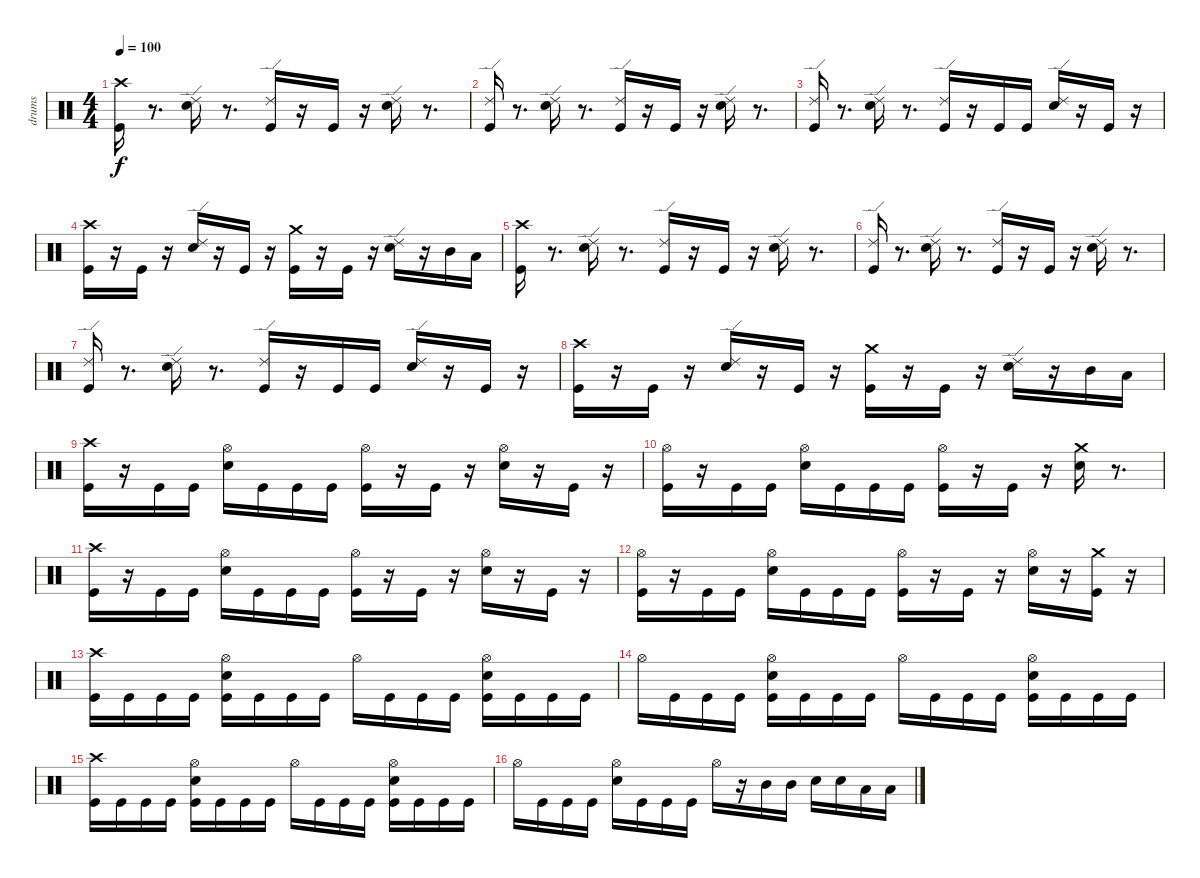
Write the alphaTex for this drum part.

\track ("drums" "drums") {instrument percussion}
\staff {score}
\articulation defaults
\ts (4 4)
\tempo 100
\clef neutral
\ks c
("Crash high (hit)" "Kick (hit)").16{dy f} r.8{d} ("Ride (edge) 2" "Snare (hit) 2").16 r.8{d} ("Ride (edge) 2" "Kick (hit)").16 r.16 "Kick (hit)".16 r.16 ("Ride (edge) 2" "Snare (hit) 2").16 r.8{d} |
("Ride (edge) 2" "Kick (hit)").16 r.8{d} ("Snare (hit) 2" "Ride (edge) 2").16 r.8{d} ("Kick (hit)" "Ride (edge) 2").16 r.16 "Kick (hit)".16 r.16 ("Snare (hit) 2" "Ride (edge) 2").16 r.8{d} |
("Ride (edge) 2" "Kick (hit)").16 r.8{d} ("Ride (edge) 2" "Snare (hit) 2").16 r.8{d} ("Ride (edge) 2" "Kick (hit)").16 r.16 "Kick (hit)".16 "Kick (hit)".16 ("Ride (edge) 2" "Snare (hit) 2").16 r.16 "Kick (hit)".16 r.16 |
("Crash high (hit)" "Kick (hit)").16 r.16 "Kick (hit)".16 r.16 ("Ride (edge) 2" "Snare (hit) 2").16 r.16 "Kick (hit)".16 r.16 ("Crash medium (hit)" "Kick (hit)").16 r.16 "Kick (hit)".16 r.16 ("Ride (edge) 2" "Snare (hit) 2").16 r.16 "Mid Tom (hit)".16 "Low Tom (hit)".16 |
("Crash high (hit)" "Kick (hit)").16 r.8{d} ("Ride (edge) 2" "Snare (hit) 2").16 r.8{d} ("Ride (edge) 2" "Kick (hit)").16 r.16 "Kick (hit)".16 r.16 ("Ride (edge) 2" "Snare (hit) 2").16 r.8{d} |
("Ride (edge) 2" "Kick (hit)").16 r.8{d} ("Snare (hit) 2" "Ride (edge) 2").16 r.8{d} ("Kick (hit)" "Ride (edge) 2").16 r.16 "Kick (hit)".16 r.16 ("Snare (hit) 2" "Ride (edge) 2").16 r.8{d} |
("Ride (edge) 2" "Kick (hit)").16 r.8{d} ("Ride (edge) 2" "Snare (hit) 2").16 r.8{d} ("Ride (edge) 2" "Kick (hit)").16 r.16 "Kick (hit)".16 "Kick (hit)".16 ("Ride (edge) 2" "Snare (hit) 2").16 r.16 "Kick (hit)".16 r.16 |
("Crash high (hit)" "Kick (hit)").16 r.16 "Kick (hit)".16 r.16 ("Ride (edge) 2" "Snare (hit) 2").16 r.16 "Kick (hit)".16 r.16 ("Crash medium (hit)" "Kick (hit)").16 r.16 "Kick (hit)".16 r.16 ("Ride (edge) 2" "Snare (hit) 2").16 r.16 "Mid Tom (hit)".16 "Low Tom (hit)".16 |
("Crash high (hit)" "Kick (hit)").16 r.16 "Kick (hit)".16 "Kick (hit)".16 ("Hi-Hat (open)" "Snare (hit) 2").16 "Kick (hit)".16 "Kick (hit)".16 "Kick (hit)".16 ("Hi-Hat (open)" "Kick (hit)").16 r.16 "Kick (hit)".16 r.16 ("Snare (hit) 2" "Hi-Hat (open)").16 r.16 "Kick (hit)".16 r.16 |
("Hi-Hat (open)" "Kick (hit)").16 r.16 "Kick (hit)".16 "Kick (hit)".16 ("Hi-Hat (open)" "Snare (hit) 2").16 "Kick (hit)".16 "Kick (hit)".16 "Kick (hit)".16 ("Hi-Hat (open)" "Kick (hit)").16 r.16 "Kick (hit)".16 r.16 ("Crash medium (hit)" "Snare (hit) 2").16 r.8{d} |
("Crash high (hit)" "Kick (hit)").16 r.16 "Kick (hit)".16 "Kick (hit)".16 ("Hi-Hat (open)" "Snare (hit) 2").16 "Kick (hit)".16 "Kick (hit)".16 "Kick (hit)".16 ("Hi-Hat (open)" "Kick (hit)").16 r.16 "Kick (hit)".16 r.16 ("Snare (hit) 2" "Hi-Hat (open)").16 r.16 "Kick (hit)".16 r.16 |
("Hi-Hat (open)" "Kick (hit)").16 r.16 "Kick (hit)".16 "Kick (hit)".16 ("Hi-Hat (open)" "Snare (hit) 2").16 "Kick (hit)".16 "Kick (hit)".16 "Kick (hit)".16 ("Hi-Hat (open)" "Kick (hit)").16 r.16 "Kick (hit)".16 r.16 ("Snare (hit) 2" "Hi-Hat (open)").16 r.16 ("Kick (hit)" "Crash medium (hit)").16 r.16 |
("Kick (hit)" "Crash high (hit)").16 "Kick (hit)".16 "Kick (hit)".16 "Kick (hit)".16 ("Kick (hit)" "Hi-Hat (open)" "Snare (hit) 2").16 "Kick (hit)".16 "Kick (hit)".16 "Kick (hit)".16 "Hi-Hat (open)".16 "Kick (hit)".16 "Kick (hit)".16 "Kick (hit)".16 ("Kick (hit)" "Snare (hit) 2" "Hi-Hat (open)").16 "Kick (hit)".16 "Kick (hit)".16 "Kick (hit)".16 |
"Hi-Hat (open)".16 "Kick (hit)".16 "Kick (hit)".16 "Kick (hit)".16 ("Kick (hit)" "Hi-Hat (open)" "Snare (hit) 2").16 "Kick (hit)".16 "Kick (hit)".16 "Kick (hit)".16 "Hi-Hat (open)".16 "Kick (hit)".16 "Kick (hit)".16 "Kick (hit)".16 ("Hi-Hat (open)" "Kick (hit)" "Snare (hit) 2").16 "Kick (hit)".16 "Kick (hit)".16 "Kick (hit)".16 |
("Crash high (hit)" "Kick (hit)").16 "Kick (hit)".16 "Kick (hit)".16 "Kick (hit)".16 ("Kick (hit)" "Hi-Hat (open)" "Snare (hit) 2").16 "Kick (hit)".16 "Kick (hit)".16 "Kick (hit)".16 "Hi-Hat (open)".16 "Kick (hit)".16 "Kick (hit)".16 "Kick (hit)".16 ("Kick (hit)" "Snare (hit) 2" "Hi-Hat (open)").16 "Kick (hit)".16 "Kick (hit)".16 "Kick (hit)".16 |
"Hi-Hat (open)".16 "Kick (hit)".16 "Kick (hit)".16 "Kick (hit)".16 ("Hi-Hat (open)" "Snare (hit) 2").16 "Kick (hit)".16 "Kick (hit)".16 "Kick (hit)".16 "Hi-Hat (open)".16 r.16 "Mid Tom (hit)".16 "Mid Tom (hit)".16 "Snare (hit) 2".16 "Snare (hit) 2".16 "Low Tom (hit)".16 "Low Tom (hit)".16
